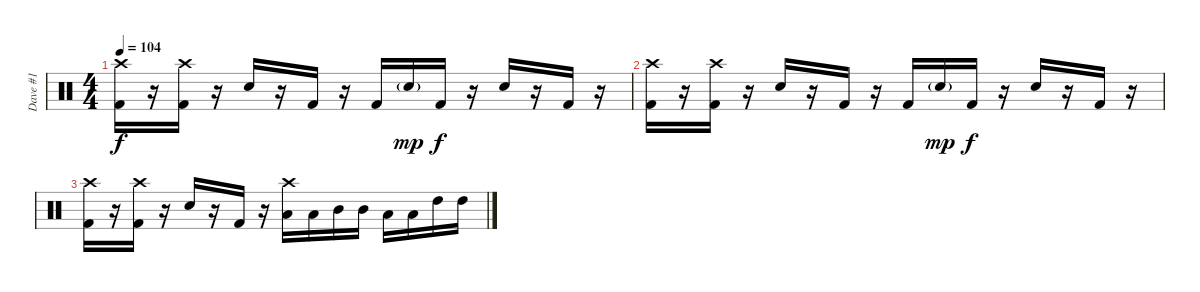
\track ("Dave #1" "Dave #1") {instrument percussion}
\staff {score}
\articulation defaults
\ts (4 4)
\tempo 104
\clef neutral
\ks c
("Crash high (hit)" "Kick (hit) 2").16{dy f} r.16 ("Crash high (hit)" "Kick (hit) 2").16 r.16 "Snare (hit) 2".16 r.16 "Kick (hit) 2".16 r.16 "Kick (hit) 2".16 "Snare (hit) 2"{g}.16{dy mp} "Kick (hit) 2".16{dy f} r.16 "Snare (hit) 2".16 r.16 "Kick (hit) 2".16 r.16 |
("Crash high (hit)" "Kick (hit) 2").16 r.16 ("Crash high (hit)" "Kick (hit) 2").16 r.16 "Snare (hit) 2".16 r.16 "Kick (hit) 2".16 r.16 "Kick (hit) 2".16 "Snare (hit) 2"{g}.16{dy mp} "Kick (hit) 2".16{dy f} r.16 "Snare (hit) 2".16 r.16 "Kick (hit) 2".16 r.16 |
("Crash high (hit)" "Kick (hit) 2").16 r.16 ("Crash high (hit)" "Kick (hit) 2").16 r.16 "Snare (hit) 2".16 r.16 "Kick (hit) 2".16 r.16 ("Crash high (hit)" "Low Tom (hit)").16 "Low Tom (hit)".16 "Mid Tom (hit)".16 "Mid Tom (hit)".16 "Low Tom (hit)".16 "Low Tom (hit)".16 "High Tom (hit)".16 "High Tom (hit)".16
